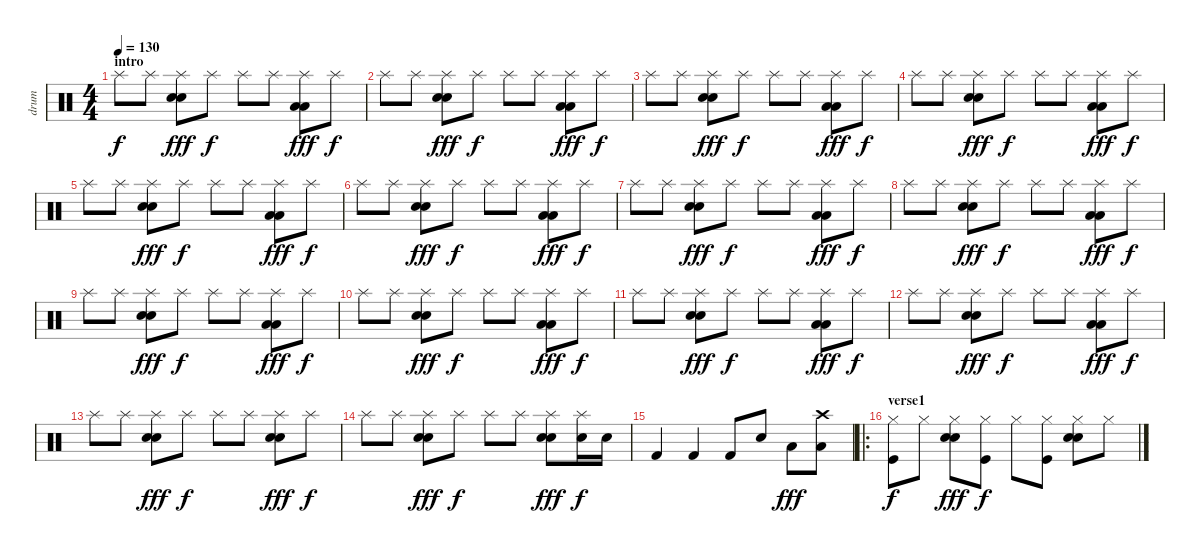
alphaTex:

\track ("drum" "drum") {instrument percussion}
\staff {score}
\articulation defaults
\ts (4 4)
\section ("" "intro")
\tempo 130
\clef neutral
\ks c "Splash (hit)".8{dy f} "Splash (hit)".8
("Splash (hit)" "Snare (hit) 2" "Snare (hit) 2").8{dy fff} "Splash (hit)".8{dy f} "Splash (hit)".8 "Splash (hit)".8 ("Splash (hit)" "Low Floor Tom (hit)" "Low Floor Tom (hit)").8{dy fff} "Splash (hit)".8{dy f} |
"Splash (hit)".8 "Splash (hit)".8 ("Splash (hit)" "Snare (hit) 2" "Snare (hit) 2").8{dy fff} "Splash (hit)".8{dy f} "Splash (hit)".8 "Splash (hit)".8 ("Splash (hit)" "Low Floor Tom (hit)" "Low Floor Tom (hit)").8{dy fff} "Splash (hit)".8{dy f} |
"Splash (hit)".8 "Splash (hit)".8 ("Splash (hit)" "Snare (hit) 2" "Snare (hit) 2").8{dy fff} "Splash (hit)".8{dy f} "Splash (hit)".8 "Splash (hit)".8 ("Splash (hit)" "Low Floor Tom (hit)" "Low Floor Tom (hit)").8{dy fff} "Splash (hit)".8{dy f} |
"Splash (hit)".8 "Splash (hit)".8 ("Splash (hit)" "Snare (hit) 2" "Snare (hit) 2").8{dy fff} "Splash (hit)".8{dy f} "Splash (hit)".8 "Splash (hit)".8 ("Splash (hit)" "Low Floor Tom (hit)" "Low Floor Tom (hit)").8{dy fff} "Splash (hit)".8{dy f} |
"Splash (hit)".8 "Splash (hit)".8 ("Splash (hit)" "Snare (hit) 2" "Snare (hit) 2").8{dy fff} "Splash (hit)".8{dy f} "Splash (hit)".8 "Splash (hit)".8 ("Splash (hit)" "Low Floor Tom (hit)" "Low Floor Tom (hit)").8{dy fff} "Splash (hit)".8{dy f} |
"Splash (hit)".8 "Splash (hit)".8 ("Splash (hit)" "Snare (hit) 2" "Snare (hit) 2").8{dy fff} "Splash (hit)".8{dy f} "Splash (hit)".8 "Splash (hit)".8 ("Splash (hit)" "Low Floor Tom (hit)" "Low Floor Tom (hit)").8{dy fff} "Splash (hit)".8{dy f} |
"Splash (hit)".8 "Splash (hit)".8 ("Splash (hit)" "Snare (hit) 2" "Snare (hit) 2").8{dy fff} "Splash (hit)".8{dy f} "Splash (hit)".8 "Splash (hit)".8 ("Splash (hit)" "Low Floor Tom (hit)" "Low Floor Tom (hit)").8{dy fff} "Splash (hit)".8{dy f} |
"Splash (hit)".8 "Splash (hit)".8 ("Splash (hit)" "Snare (hit) 2" "Snare (hit) 2").8{dy fff} "Splash (hit)".8{dy f} "Splash (hit)".8 "Splash (hit)".8 ("Splash (hit)" "Low Floor Tom (hit)" "Low Floor Tom (hit)").8{dy fff} "Splash (hit)".8{dy f} |
"Splash (hit)".8 "Splash (hit)".8 ("Splash (hit)" "Snare (hit) 2" "Snare (hit) 2").8{dy fff} "Splash (hit)".8{dy f} "Splash (hit)".8 "Splash (hit)".8 ("Splash (hit)" "Low Floor Tom (hit)" "Low Floor Tom (hit)").8{dy fff} "Splash (hit)".8{dy f} |
"Splash (hit)".8 "Splash (hit)".8 ("Splash (hit)" "Snare (hit) 2" "Snare (hit) 2").8{dy fff} "Splash (hit)".8{dy f} "Splash (hit)".8 "Splash (hit)".8 ("Splash (hit)" "Low Floor Tom (hit)" "Low Floor Tom (hit)").8{dy fff} "Splash (hit)".8{dy f} |
"Splash (hit)".8 "Splash (hit)".8 ("Splash (hit)" "Snare (hit) 2" "Snare (hit) 2").8{dy fff} "Splash (hit)".8{dy f} "Splash (hit)".8 "Splash (hit)".8 ("Splash (hit)" "Low Floor Tom (hit)" "Low Floor Tom (hit)").8{dy fff} "Splash (hit)".8{dy f} |
"Splash (hit)".8 "Splash (hit)".8 ("Splash (hit)" "Snare (hit) 2" "Snare (hit) 2").8{dy fff} "Splash (hit)".8{dy f} "Splash (hit)".8 "Splash (hit)".8 ("Splash (hit)" "Low Floor Tom (hit)" "Low Floor Tom (hit)").8{dy fff} "Splash (hit)".8{dy f} |
"Splash (hit)".8 "Splash (hit)".8 ("Splash (hit)" "Snare (hit) 2" "Snare (hit) 2").8{dy fff} "Splash (hit)".8{dy f} "Splash (hit)".8 "Splash (hit)".8 ("Splash (hit)" "Snare (hit) 2" "Snare (hit) 2").8{dy fff} "Splash (hit)".8{dy f} |
"Splash (hit)".8 "Splash (hit)".8 ("Splash (hit)" "Snare (hit) 2" "Snare (hit) 2").8{dy fff} "Splash (hit)".8{dy f} "Splash (hit)".8 "Splash (hit)".8 ("Splash (hit)" "Snare (hit) 2" "Snare (hit) 2").8{dy fff} ("Splash (hit)" "Snare (hit) 2").16{dy f} "Snare (hit) 2".16 |
"Kick (hit) 2".4 "Kick (hit) 2".4 "Kick (hit) 2".8 "Snare (hit) 2".8 "Low Floor Tom (hit)".8{dy fff} ("Crash high (hit)" "Low Tom (hit)").8 |
\ro
\section ("" "verse1")
("Hi-Hat (closed)" "Kick (hit)").8{dy f} "Hi-Hat (closed)".8 ("Hi-Hat (closed)" "Snare (hit) 2" "Snare (hit) 2").8{dy fff} ("Hi-Hat (closed)" "Kick (hit)").8{dy f} "Hi-Hat (closed)".8 ("Hi-Hat (closed)" "Kick (hit)").8 ("Hi-Hat (closed)" "Snare (hit) 2" "Snare (hit) 2").8 "Hi-Hat (closed)".8
